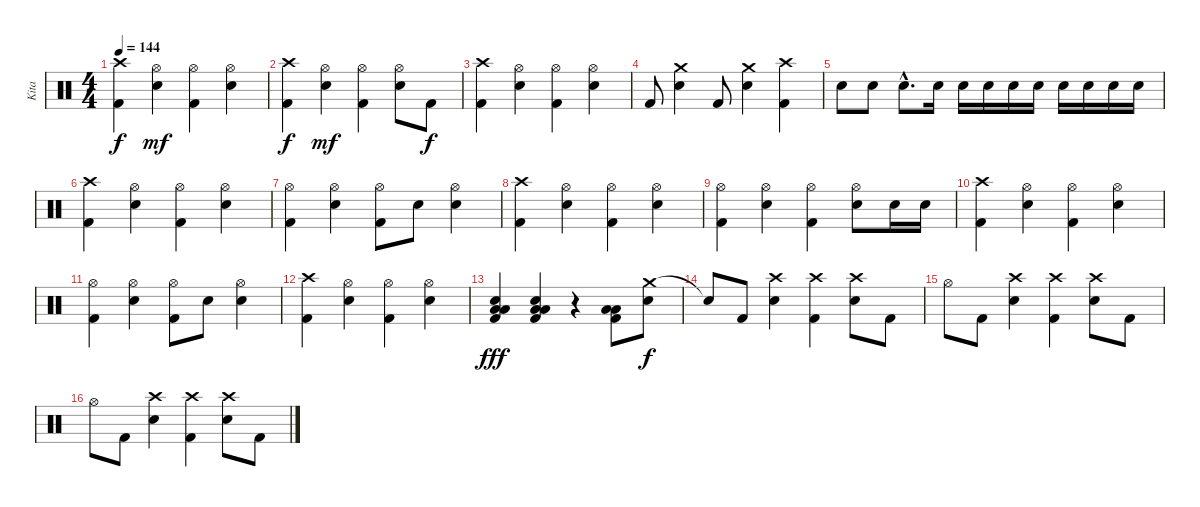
\track ("Kita" "Kita") {instrument percussion}
\staff {score}
\articulation defaults
\ts (4 4)
\tempo 144
\clef neutral
\ks c
("Kick (hit) 2" "Crash high (hit)").4{dy f} ("Hi-Hat (open)" "Snare (hit) 2").4{dy mf} ("Kick (hit) 2" "Hi-Hat (open)").4 ("Hi-Hat (open)" "Snare (hit) 2").4 |
("Kick (hit) 2" "Crash high (hit)").4{dy f} ("Hi-Hat (open)" "Snare (hit) 2").4{dy mf} ("Kick (hit) 2" "Hi-Hat (open)").4 ("Hi-Hat (open)" "Snare (hit) 2").8 "Kick (hit) 2".8{dy f} |
("Kick (hit) 2" "Crash high (hit)").4 ("Hi-Hat (open)" "Snare (hit) 2").4 ("Kick (hit) 2" "Hi-Hat (open)").4 ("Hi-Hat (open)" "Snare (hit) 2").4 |
"Kick (hit) 2".8 ("Crash medium (hit)" "Snare (hit) 2").4 "Kick (hit) 2".8 ("Crash medium (hit)" "Snare (hit) 2").4 ("Kick (hit) 2" "Crash high (hit)").4 |
"Snare (hit) 2".8 "Snare (hit) 2".8 "Snare (hit) 2"{hac}.8{d} "Snare (hit) 2".16 "Snare (hit) 2".16 "Snare (hit) 2".16 "Snare (hit) 2".16 "Snare (hit) 2".16 "Snare (hit) 2".16 "Snare (hit) 2".16 "Snare (hit) 2".16 "Snare (hit) 2".16 |
("Kick (hit) 2" "Crash high (hit)").4 ("Hi-Hat (open)" "Snare (hit) 2").4 ("Kick (hit) 2" "Hi-Hat (open)").4 ("Hi-Hat (open)" "Snare (hit) 2").4 |
("Kick (hit) 2" "Hi-Hat (open)").4 ("Hi-Hat (open)" "Snare (hit) 2").4 ("Kick (hit) 2" "Hi-Hat (open)").8 "Snare (hit) 2".8 ("Hi-Hat (open)" "Snare (hit) 2").4 |
("Kick (hit) 2" "Crash high (hit)").4 ("Hi-Hat (open)" "Snare (hit) 2").4 ("Kick (hit) 2" "Hi-Hat (open)").4 ("Hi-Hat (open)" "Snare (hit) 2").4 |
("Kick (hit) 2" "Hi-Hat (open)").4 ("Hi-Hat (open)" "Snare (hit) 2").4 ("Kick (hit) 2" "Hi-Hat (open)").4 ("Hi-Hat (open)" "Snare (hit) 2").8 "Snare (hit) 2".16 "Snare (hit) 2".16 |
("Kick (hit) 2" "Crash high (hit)").4 ("Hi-Hat (open)" "Snare (hit) 2").4 ("Kick (hit) 2" "Hi-Hat (open)").4 ("Hi-Hat (open)" "Snare (hit) 2").4 |
("Kick (hit) 2" "Hi-Hat (open)").4 ("Hi-Hat (open)" "Snare (hit) 2").4 ("Kick (hit) 2" "Hi-Hat (open)").8 "Snare (hit) 2".8 ("Hi-Hat (open)" "Snare (hit) 2").4 |
("Kick (hit) 2" "Crash high (hit)").4 ("Hi-Hat (open)" "Snare (hit) 2").4 ("Kick (hit) 2" "Hi-Hat (open)").4 ("Hi-Hat (open)" "Snare (hit) 2").4 |
("Kick (hit) 2" "Low Floor Tom (hit)" "Low Floor Tom (hit)" "Snare (hit) 2").4{dy fff} ("Kick (hit) 2" "Low Floor Tom (hit)" "Low Floor Tom (hit)" "Snare (hit) 2").4 r.4 ("Kick (hit) 2" "Low Floor Tom (hit)" "Low Floor Tom (hit)").8 ("Crash medium (hit)" "Snare (hit) 2").8{dy f} |
"Snare (hit)"{t}.8 "Kick (hit) 2".8 ("Crash high (hit)" "Snare (hit) 2").4 ("Kick (hit) 2" "Crash high (hit)").4 ("Crash high (hit)" "Snare (hit) 2").8 "Kick (hit) 2".8 |
"Hi-Hat (open)".8 "Kick (hit) 2".8 ("Crash high (hit)" "Snare (hit) 2").4 ("Kick (hit) 2" "Crash high (hit)").4 ("Crash high (hit)" "Snare (hit) 2").8 "Kick (hit) 2".8 |
"Hi-Hat (open)".8 "Kick (hit) 2".8 ("Crash high (hit)" "Snare (hit) 2").4 ("Kick (hit) 2" "Crash high (hit)").4 ("Crash high (hit)" "Snare (hit) 2").8 "Kick (hit) 2".8
